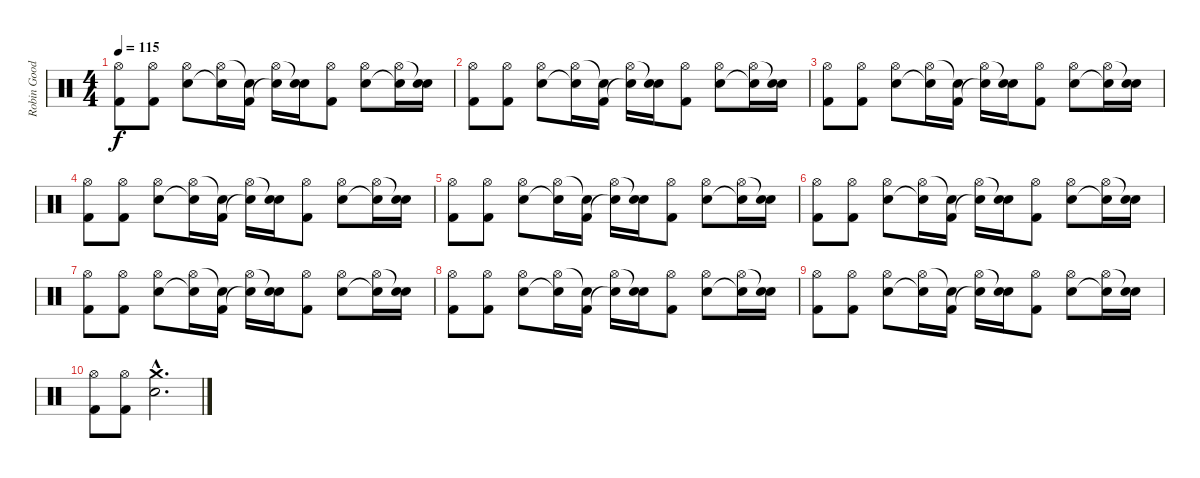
\track ("Robin Goodridge" "Robin Good") {instrument percussion}
\staff {score}
\articulation defaults
\ts (4 4)
\tempo 115
\clef neutral
\ks c
("Hi-Hat (open)" "Kick (hit) 2").8{dy f} ("Hi-Hat (open)" "Kick (hit) 2").8 ("Hi-Hat (open)" "Snare (hit) 2").8 ("Hi-Hat (open)" "Snare (hit)"{t}).16 ("Snare (hit)"{t} "Kick (hit) 2").16 ("Hi-Hat (open)" "Snare (hit)"{t}).16 ("Snare (hit)"{t} "Snare (hit) 2").16 ("Hi-Hat (open)" "Kick (hit) 2").8 ("Hi-Hat (open)" "Snare (hit) 2").8 ("Hi-Hat (open)" "Snare (hit) 2"{t}).16 ("Snare (hit)"{t} "Snare (hit) 2").16 |
("Hi-Hat (open)" "Kick (hit) 2").8 ("Hi-Hat (open)" "Kick (hit) 2").8 ("Hi-Hat (open)" "Snare (hit) 2").8 ("Hi-Hat (open)" "Snare (hit)"{t}).16 ("Snare (hit)"{t} "Kick (hit) 2").16 ("Hi-Hat (open)" "Snare (hit)"{t}).16 ("Snare (hit)"{t} "Snare (hit) 2").16 ("Hi-Hat (open)" "Kick (hit) 2").8 ("Hi-Hat (open)" "Snare (hit) 2").8 ("Hi-Hat (open)" "Snare (hit) 2"{t}).16 ("Snare (hit)"{t} "Snare (hit) 2").16 |
("Hi-Hat (open)" "Kick (hit) 2").8 ("Hi-Hat (open)" "Kick (hit) 2").8 ("Hi-Hat (open)" "Snare (hit) 2").8 ("Hi-Hat (open)" "Snare (hit)"{t}).16 ("Snare (hit)"{t} "Kick (hit) 2").16 ("Hi-Hat (open)" "Snare (hit)"{t}).16 ("Snare (hit)"{t} "Snare (hit) 2").16 ("Hi-Hat (open)" "Kick (hit) 2").8 ("Hi-Hat (open)" "Snare (hit) 2").8 ("Hi-Hat (open)" "Snare (hit) 2"{t}).16 ("Snare (hit)"{t} "Snare (hit) 2").16 |
("Hi-Hat (open)" "Kick (hit) 2").8 ("Hi-Hat (open)" "Kick (hit) 2").8 ("Hi-Hat (open)" "Snare (hit) 2").8 ("Hi-Hat (open)" "Snare (hit)"{t}).16 ("Snare (hit)"{t} "Kick (hit) 2").16 ("Hi-Hat (open)" "Snare (hit)"{t}).16 ("Snare (hit)"{t} "Snare (hit) 2").16 ("Hi-Hat (open)" "Kick (hit) 2").8 ("Hi-Hat (open)" "Snare (hit) 2").8 ("Hi-Hat (open)" "Snare (hit) 2"{t}).16 ("Snare (hit)"{t} "Snare (hit) 2").16 |
("Hi-Hat (open)" "Kick (hit) 2").8 ("Hi-Hat (open)" "Kick (hit) 2").8 ("Hi-Hat (open)" "Snare (hit) 2").8 ("Hi-Hat (open)" "Snare (hit)"{t}).16 ("Snare (hit)"{t} "Kick (hit) 2").16 ("Hi-Hat (open)" "Snare (hit)"{t}).16 ("Snare (hit)"{t} "Snare (hit) 2").16 ("Hi-Hat (open)" "Kick (hit) 2").8 ("Hi-Hat (open)" "Snare (hit) 2").8 ("Hi-Hat (open)" "Snare (hit) 2"{t}).16 ("Snare (hit)"{t} "Snare (hit) 2").16 |
("Hi-Hat (open)" "Kick (hit) 2").8 ("Hi-Hat (open)" "Kick (hit) 2").8 ("Hi-Hat (open)" "Snare (hit) 2").8 ("Hi-Hat (open)" "Snare (hit)"{t}).16 ("Snare (hit)"{t} "Kick (hit) 2").16 ("Hi-Hat (open)" "Snare (hit)"{t}).16 ("Snare (hit)"{t} "Snare (hit) 2").16 ("Hi-Hat (open)" "Kick (hit) 2").8 ("Hi-Hat (open)" "Snare (hit) 2").8 ("Hi-Hat (open)" "Snare (hit) 2"{t}).16 ("Snare (hit)"{t} "Snare (hit) 2").16 |
("Hi-Hat (open)" "Kick (hit) 2").8 ("Hi-Hat (open)" "Kick (hit) 2").8 ("Hi-Hat (open)" "Snare (hit) 2").8 ("Hi-Hat (open)" "Snare (hit)"{t}).16 ("Snare (hit)"{t} "Kick (hit) 2").16 ("Hi-Hat (open)" "Snare (hit)"{t}).16 ("Snare (hit)"{t} "Snare (hit) 2").16 ("Hi-Hat (open)" "Kick (hit) 2").8 ("Hi-Hat (open)" "Snare (hit) 2").8 ("Hi-Hat (open)" "Snare (hit) 2"{t}).16 ("Snare (hit)"{t} "Snare (hit) 2").16 |
("Hi-Hat (open)" "Kick (hit) 2").8 ("Hi-Hat (open)" "Kick (hit) 2").8 ("Hi-Hat (open)" "Snare (hit) 2").8 ("Hi-Hat (open)" "Snare (hit)"{t}).16 ("Snare (hit)"{t} "Kick (hit) 2").16 ("Hi-Hat (open)" "Snare (hit)"{t}).16 ("Snare (hit)"{t} "Snare (hit) 2").16 ("Hi-Hat (open)" "Kick (hit) 2").8 ("Hi-Hat (open)" "Snare (hit) 2").8 ("Hi-Hat (open)" "Snare (hit) 2"{t}).16 ("Snare (hit)"{t} "Snare (hit) 2").16 |
("Hi-Hat (open)" "Kick (hit) 2").8 ("Hi-Hat (open)" "Kick (hit) 2").8 ("Hi-Hat (open)" "Snare (hit) 2").8 ("Hi-Hat (open)" "Snare (hit)"{t}).16 ("Snare (hit)"{t} "Kick (hit) 2").16 ("Hi-Hat (open)" "Snare (hit)"{t}).16 ("Snare (hit)"{t} "Snare (hit) 2").16 ("Hi-Hat (open)" "Kick (hit) 2").8 ("Hi-Hat (open)" "Snare (hit) 2").8 ("Hi-Hat (open)" "Snare (hit) 2"{t}).16 ("Snare (hit)"{t} "Snare (hit) 2").16 |
("Hi-Hat (open)" "Kick (hit) 2").8 ("Hi-Hat (open)" "Kick (hit) 2").8 ("Crash medium (hit)"{hac} "Snare (hit) 2"{hac}).2{d}
